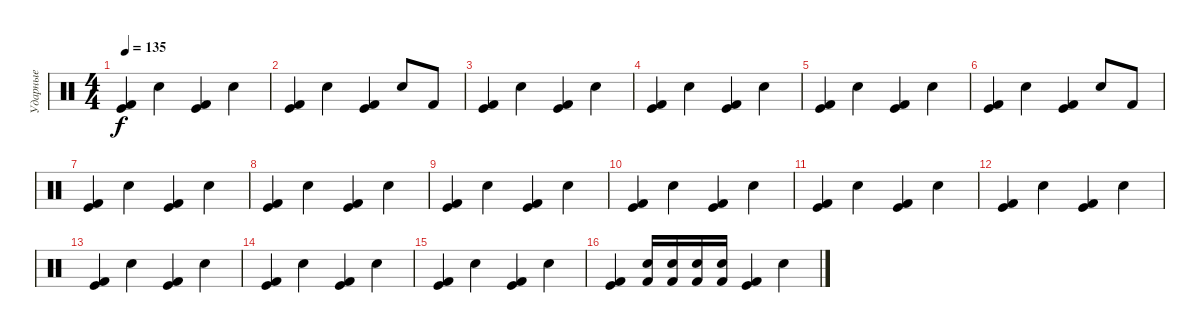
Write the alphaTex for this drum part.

\track ("Ударные" "Ударные") {instrument percussion}
\staff {score}
\articulation defaults
\ts (4 4)
\tempo 135
\clef neutral
\ks c
("Kick (hit) 2" "Kick (hit)").4{dy f} "Electric Snare (hit)".4 ("Kick (hit) 2" "Kick (hit)").4 "Electric Snare (hit)".4 |
("Kick (hit) 2" "Kick (hit)").4 "Electric Snare (hit)".4 ("Kick (hit) 2" "Kick (hit)").4 "Electric Snare (hit)".8 "Kick (hit) 2".8 |
("Kick (hit) 2" "Kick (hit)").4 "Electric Snare (hit)".4 ("Kick (hit) 2" "Kick (hit)").4 "Electric Snare (hit)".4 |
("Kick (hit) 2" "Kick (hit)").4 "Electric Snare (hit)".4 ("Kick (hit) 2" "Kick (hit)").4 "Electric Snare (hit)".4 |
("Kick (hit) 2" "Kick (hit)").4 "Electric Snare (hit)".4 ("Kick (hit) 2" "Kick (hit)").4 "Electric Snare (hit)".4 |
("Kick (hit) 2" "Kick (hit)").4 "Electric Snare (hit)".4 ("Kick (hit) 2" "Kick (hit)").4 "Electric Snare (hit)".8 "Kick (hit) 2".8 |
("Kick (hit) 2" "Kick (hit)").4 "Electric Snare (hit)".4 ("Kick (hit) 2" "Kick (hit)").4 "Electric Snare (hit)".4 |
("Kick (hit) 2" "Kick (hit)").4 "Electric Snare (hit)".4 ("Kick (hit) 2" "Kick (hit)").4 "Electric Snare (hit)".4 |
("Kick (hit) 2" "Kick (hit)").4 "Electric Snare (hit)".4 ("Kick (hit) 2" "Kick (hit)").4 "Electric Snare (hit)".4 |
("Kick (hit) 2" "Kick (hit)").4 "Electric Snare (hit)".4 ("Kick (hit) 2" "Kick (hit)").4 "Electric Snare (hit)".4 |
("Kick (hit) 2" "Kick (hit)").4 "Electric Snare (hit)".4 ("Kick (hit) 2" "Kick (hit)").4 "Electric Snare (hit)".4 |
("Kick (hit) 2" "Kick (hit)").4 "Electric Snare (hit)".4 ("Kick (hit) 2" "Kick (hit)").4 "Electric Snare (hit)".4 |
("Kick (hit) 2" "Kick (hit)").4 "Electric Snare (hit)".4 ("Kick (hit) 2" "Kick (hit)").4 "Electric Snare (hit)".4 |
("Kick (hit) 2" "Kick (hit)").4 "Electric Snare (hit)".4 ("Kick (hit) 2" "Kick (hit)").4 "Electric Snare (hit)".4 |
("Kick (hit) 2" "Kick (hit)").4 "Electric Snare (hit)".4 ("Kick (hit) 2" "Kick (hit)").4 "Electric Snare (hit)".4 |
("Kick (hit) 2" "Kick (hit)").4 ("Electric Snare (hit)" "Kick (hit) 2").16 ("Electric Snare (hit)" "Kick (hit) 2").16 ("Electric Snare (hit)" "Kick (hit) 2").16 ("Electric Snare (hit)" "Kick (hit) 2").16 ("Kick (hit) 2" "Kick (hit)").4 "Electric Snare (hit)".4
